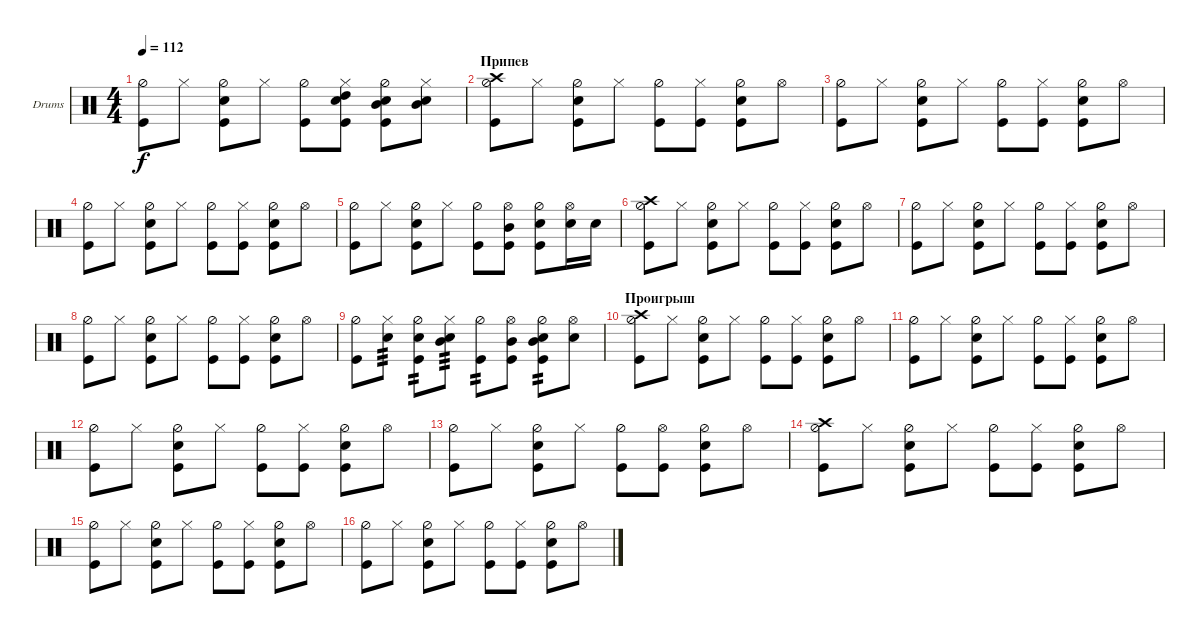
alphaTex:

\defaultSystemsLayout 4
\bracketExtendMode groupsimilarinstruments
\firstSystemTrackNameOrientation horizontal
\otherSystemsTrackNameOrientation horizontal
\track ("Drumkit" "Drums") {instrument percussion}
\staff {score}
\articulation defaults
\ts (4 4)
\tempo 112
\clef neutral
\ks c
("Hi-Hat (half)" "Kick (hit)").8{dy f} "Hi-Hat (closed)".8 ("Hi-Hat (half)" "Snare (hit) 2" "Kick (hit)").8 "Hi-Hat (closed)".8 ("Hi-Hat (half)" "Kick (hit)").8 ("Hi-Hat (closed)" "Kick (hit)" "High Tom (hit)" "Snare (hit) 2").8 ("Hi-Hat (half)" "Mid Tom (hit)" "Snare (hit) 2" "Kick (hit)").8 ("Hi-Hat (closed)" "Mid Tom (hit)" "Snare (hit) 2").8 |
\section ("" "Припев")
("Hi-Hat (half)" "Kick (hit)" "Crash high (hit)").8 "Hi-Hat (closed)".8 ("Hi-Hat (half)" "Snare (hit) 2" "Kick (hit)").8 "Hi-Hat (closed)".8 ("Hi-Hat (half)" "Kick (hit)").8 ("Hi-Hat (closed)" "Kick (hit)").8 ("Hi-Hat (half)" "Snare (hit) 2" "Kick (hit)").8 "Hi-Hat (open)".8 |
("Hi-Hat (half)" "Kick (hit)").8 "Hi-Hat (closed)".8 ("Hi-Hat (half)" "Snare (hit) 2" "Kick (hit)").8 "Hi-Hat (closed)".8 ("Hi-Hat (half)" "Kick (hit)").8 ("Hi-Hat (closed)" "Kick (hit)").8 ("Hi-Hat (half)" "Snare (hit) 2" "Kick (hit)").8 "Hi-Hat (open)".8 |
("Hi-Hat (half)" "Kick (hit)").8 "Hi-Hat (closed)".8 ("Hi-Hat (half)" "Snare (hit) 2" "Kick (hit)").8 "Hi-Hat (closed)".8 ("Hi-Hat (half)" "Kick (hit)").8 ("Hi-Hat (closed)" "Kick (hit)").8 ("Hi-Hat (half)" "Snare (hit) 2" "Kick (hit)").8 "Hi-Hat (open)".8 |
("Hi-Hat (half)" "Kick (hit)").8 "Hi-Hat (closed)".8 ("Hi-Hat (half)" "Snare (hit) 2" "Kick (hit)").8 "Hi-Hat (closed)".8 ("Hi-Hat (half)" "Kick (hit)").8 ("Hi-Hat (open)" "Kick (hit)" "Mid Tom (hit)").8 ("Hi-Hat (half)" "Snare (hit) 2" "Kick (hit)").8 ("Hi-Hat (open)" "Snare (hit) 2").16 "Snare (hit) 2".16 |
("Hi-Hat (half)" "Kick (hit)" "Crash high (hit)").8 "Hi-Hat (closed)".8 ("Hi-Hat (half)" "Snare (hit) 2" "Kick (hit)").8 "Hi-Hat (closed)".8 ("Hi-Hat (half)" "Kick (hit)").8 ("Hi-Hat (closed)" "Kick (hit)").8 ("Hi-Hat (half)" "Snare (hit) 2" "Kick (hit)").8 "Hi-Hat (open)".8 |
("Hi-Hat (half)" "Kick (hit)").8 "Hi-Hat (closed)".8 ("Hi-Hat (half)" "Snare (hit) 2" "Kick (hit)").8 "Hi-Hat (closed)".8 ("Hi-Hat (half)" "Kick (hit)").8 ("Hi-Hat (closed)" "Kick (hit)").8 ("Hi-Hat (half)" "Snare (hit) 2" "Kick (hit)").8 "Hi-Hat (open)".8 |
("Hi-Hat (half)" "Kick (hit)").8 "Hi-Hat (closed)".8 ("Hi-Hat (half)" "Snare (hit) 2" "Kick (hit)").8 "Hi-Hat (closed)".8 ("Hi-Hat (half)" "Kick (hit)").8 ("Hi-Hat (closed)" "Kick (hit)").8 ("Hi-Hat (half)" "Snare (hit) 2" "Kick (hit)").8 "Hi-Hat (open)".8 |
("Hi-Hat (half)" "Kick (hit)").8 ("Hi-Hat (closed)" "Snare (hit) 2").8{tp 3} ("Hi-Hat (half)" "Snare (hit) 2" "Kick (hit)").8{tp 2} ("Hi-Hat (closed)" "Snare (hit) 2" "Mid Tom (hit)").8{tp 3} ("Hi-Hat (half)" "Kick (hit)").8{tp 2} ("Hi-Hat (open)" "Kick (hit)" "Mid Tom (hit)").8 ("Hi-Hat (half)" "Snare (hit) 2" "Kick (hit)" "Mid Tom (hit)").8{tp 2} ("Hi-Hat (open)" "Snare (hit) 2").8 |
\section ("" "Проигрыш")
("Hi-Hat (half)" "Kick (hit)" "Crash high (hit)").8 "Hi-Hat (closed)".8 ("Hi-Hat (half)" "Snare (hit) 2" "Kick (hit)").8 "Hi-Hat (closed)".8 ("Hi-Hat (half)" "Kick (hit)").8 ("Hi-Hat (closed)" "Kick (hit)").8 ("Hi-Hat (half)" "Snare (hit) 2" "Kick (hit)").8 "Hi-Hat (open)".8 |
("Hi-Hat (half)" "Kick (hit)").8 "Hi-Hat (closed)".8 ("Hi-Hat (half)" "Snare (hit) 2" "Kick (hit)").8 "Hi-Hat (closed)".8 ("Hi-Hat (half)" "Kick (hit)").8 ("Hi-Hat (closed)" "Kick (hit)").8 ("Hi-Hat (half)" "Snare (hit) 2" "Kick (hit)").8 "Hi-Hat (open)".8 |
("Hi-Hat (half)" "Kick (hit)").8 "Hi-Hat (closed)".8 ("Hi-Hat (half)" "Snare (hit) 2" "Kick (hit)").8 "Hi-Hat (closed)".8 ("Hi-Hat (half)" "Kick (hit)").8 ("Hi-Hat (closed)" "Kick (hit)").8 ("Hi-Hat (half)" "Snare (hit) 2" "Kick (hit)").8 "Hi-Hat (open)".8 |
("Hi-Hat (half)" "Kick (hit)").8 "Hi-Hat (closed)".8 ("Hi-Hat (half)" "Snare (hit) 2" "Kick (hit)").8 "Hi-Hat (closed)".8 ("Hi-Hat (half)" "Kick (hit)").8 ("Hi-Hat (open)" "Kick (hit)").8 ("Hi-Hat (half)" "Snare (hit) 2" "Kick (hit)").8 "Hi-Hat (open)".8 |
("Hi-Hat (half)" "Kick (hit)" "Crash high (hit)").8 "Hi-Hat (closed)".8 ("Hi-Hat (half)" "Snare (hit) 2" "Kick (hit)").8 "Hi-Hat (closed)".8 ("Hi-Hat (half)" "Kick (hit)").8 ("Hi-Hat (closed)" "Kick (hit)").8 ("Hi-Hat (half)" "Snare (hit) 2" "Kick (hit)").8 "Hi-Hat (open)".8 |
("Hi-Hat (half)" "Kick (hit)").8 "Hi-Hat (closed)".8 ("Hi-Hat (half)" "Snare (hit) 2" "Kick (hit)").8 "Hi-Hat (closed)".8 ("Hi-Hat (half)" "Kick (hit)").8 ("Hi-Hat (closed)" "Kick (hit)").8 ("Hi-Hat (half)" "Snare (hit) 2" "Kick (hit)").8 "Hi-Hat (open)".8 |
("Hi-Hat (half)" "Kick (hit)").8 "Hi-Hat (closed)".8 ("Hi-Hat (half)" "Snare (hit) 2" "Kick (hit)").8 "Hi-Hat (closed)".8 ("Hi-Hat (half)" "Kick (hit)").8 ("Hi-Hat (closed)" "Kick (hit)").8 ("Hi-Hat (half)" "Snare (hit) 2" "Kick (hit)").8 "Hi-Hat (open)".8
